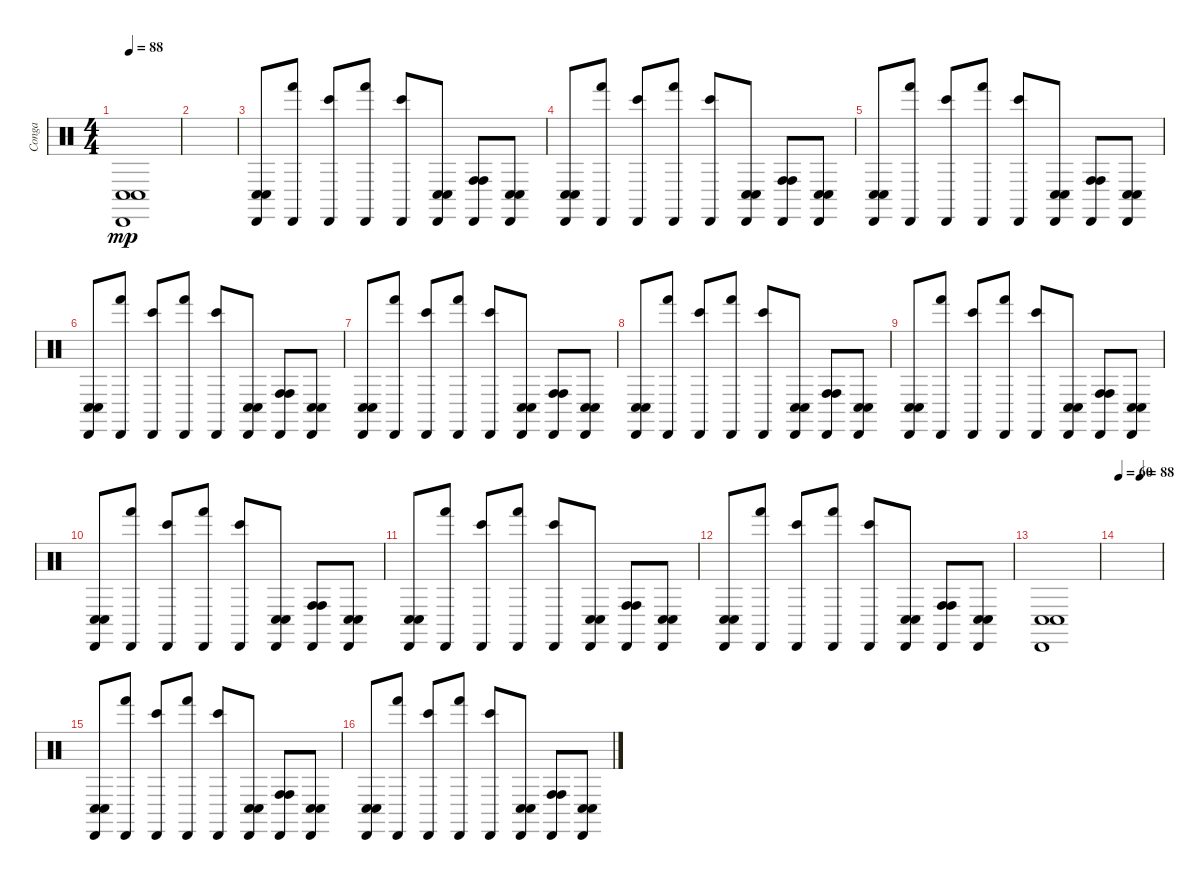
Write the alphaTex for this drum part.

\track ("Conga" "Conga") {instrument percussion}
\staff {score}
\articulation defaults
\ts (4 4)
\tempo 88
\clef neutral
\ks c
("Cabasa (hit)" "Conga low (hit)" "Conga low (hit)").1{dy mp} |
|
("Cabasa (hit)" "Conga low (hit)" "Conga low (hit)").8 ("Cabasa (hit)" "Hand (hit)").8 ("Cabasa (hit)" "Bongo High (hit)").8 ("Cabasa (hit)" "Hand (hit)").8 ("Cabasa (hit)" "Bongo High (hit)").8 ("Cabasa (hit)" "Conga low (hit)" "Conga low (hit)").8 ("Cabasa (hit)" "Conga high (hit)" "Conga high (hit)").8 ("Cabasa (hit)" "Conga low (hit)" "Conga low (hit)").8 |
("Cabasa (hit)" "Conga low (hit)" "Conga low (hit)").8 ("Cabasa (hit)" "Hand (hit)").8 ("Cabasa (hit)" "Bongo High (hit)").8 ("Cabasa (hit)" "Hand (hit)").8 ("Cabasa (hit)" "Bongo High (hit)").8 ("Cabasa (hit)" "Conga low (hit)" "Conga low (hit)").8 ("Cabasa (hit)" "Conga high (hit)" "Conga high (hit)").8 ("Cabasa (hit)" "Conga low (hit)" "Conga low (hit)").8 |
("Cabasa (hit)" "Conga low (hit)" "Conga low (hit)").8 ("Cabasa (hit)" "Hand (hit)").8 ("Cabasa (hit)" "Bongo High (hit)").8 ("Cabasa (hit)" "Hand (hit)").8 ("Cabasa (hit)" "Bongo High (hit)").8 ("Cabasa (hit)" "Conga low (hit)" "Conga low (hit)").8 ("Cabasa (hit)" "Conga high (hit)" "Conga high (hit)").8 ("Cabasa (hit)" "Conga low (hit)" "Conga low (hit)").8 |
("Cabasa (hit)" "Conga low (hit)" "Conga low (hit)").8 ("Cabasa (hit)" "Hand (hit)").8 ("Cabasa (hit)" "Bongo High (hit)").8 ("Cabasa (hit)" "Hand (hit)").8 ("Cabasa (hit)" "Bongo High (hit)").8 ("Cabasa (hit)" "Conga low (hit)" "Conga low (hit)").8 ("Cabasa (hit)" "Conga high (hit)" "Conga high (hit)").8 ("Cabasa (hit)" "Conga low (hit)" "Conga low (hit)").8 |
("Cabasa (hit)" "Conga low (hit)" "Conga low (hit)").8 ("Cabasa (hit)" "Hand (hit)").8 ("Cabasa (hit)" "Bongo High (hit)").8 ("Cabasa (hit)" "Hand (hit)").8 ("Cabasa (hit)" "Bongo High (hit)").8 ("Cabasa (hit)" "Conga low (hit)" "Conga low (hit)").8 ("Cabasa (hit)" "Conga high (hit)" "Conga high (hit)").8 ("Cabasa (hit)" "Conga low (hit)" "Conga low (hit)").8 |
("Cabasa (hit)" "Conga low (hit)" "Conga low (hit)").8 ("Cabasa (hit)" "Hand (hit)").8 ("Cabasa (hit)" "Bongo High (hit)").8 ("Cabasa (hit)" "Hand (hit)").8 ("Cabasa (hit)" "Bongo High (hit)").8 ("Cabasa (hit)" "Conga low (hit)" "Conga low (hit)").8 ("Cabasa (hit)" "Conga high (hit)" "Conga high (hit)").8 ("Cabasa (hit)" "Conga low (hit)" "Conga low (hit)").8 |
("Cabasa (hit)" "Conga low (hit)" "Conga low (hit)").8 ("Cabasa (hit)" "Hand (hit)").8 ("Cabasa (hit)" "Bongo High (hit)").8 ("Cabasa (hit)" "Hand (hit)").8 ("Cabasa (hit)" "Bongo High (hit)").8 ("Cabasa (hit)" "Conga low (hit)" "Conga low (hit)").8 ("Cabasa (hit)" "Conga high (hit)" "Conga high (hit)").8 ("Cabasa (hit)" "Conga low (hit)" "Conga low (hit)").8 |
("Cabasa (hit)" "Conga low (hit)" "Conga low (hit)").8 ("Cabasa (hit)" "Hand (hit)").8 ("Cabasa (hit)" "Bongo High (hit)").8 ("Cabasa (hit)" "Hand (hit)").8 ("Cabasa (hit)" "Bongo High (hit)").8 ("Cabasa (hit)" "Conga low (hit)" "Conga low (hit)").8 ("Cabasa (hit)" "Conga high (hit)" "Conga high (hit)").8 ("Cabasa (hit)" "Conga low (hit)" "Conga low (hit)").8 |
("Cabasa (hit)" "Conga low (hit)" "Conga low (hit)").8 ("Cabasa (hit)" "Hand (hit)").8 ("Cabasa (hit)" "Bongo High (hit)").8 ("Cabasa (hit)" "Hand (hit)").8 ("Cabasa (hit)" "Bongo High (hit)").8 ("Cabasa (hit)" "Conga low (hit)" "Conga low (hit)").8 ("Cabasa (hit)" "Conga high (hit)" "Conga high (hit)").8 ("Cabasa (hit)" "Conga low (hit)" "Conga low (hit)").8 |
("Cabasa (hit)" "Conga low (hit)" "Conga low (hit)").8 ("Cabasa (hit)" "Hand (hit)").8 ("Cabasa (hit)" "Bongo High (hit)").8 ("Cabasa (hit)" "Hand (hit)").8 ("Cabasa (hit)" "Bongo High (hit)").8 ("Cabasa (hit)" "Conga low (hit)" "Conga low (hit)").8 ("Cabasa (hit)" "Conga high (hit)" "Conga high (hit)").8 ("Cabasa (hit)" "Conga low (hit)" "Conga low (hit)").8 |
("Cabasa (hit)" "Conga low (hit)" "Conga low (hit)").1 |
\tempo 60
\tempo (88 0.5)
|
("Cabasa (hit)" "Conga low (hit)" "Conga low (hit)").8 ("Cabasa (hit)" "Hand (hit)").8 ("Cabasa (hit)" "Bongo High (hit)").8 ("Cabasa (hit)" "Hand (hit)").8 ("Cabasa (hit)" "Bongo High (hit)").8 ("Cabasa (hit)" "Conga low (hit)" "Conga low (hit)").8 ("Cabasa (hit)" "Conga high (hit)" "Conga high (hit)").8 ("Cabasa (hit)" "Conga low (hit)" "Conga low (hit)").8 |
("Cabasa (hit)" "Conga low (hit)" "Conga low (hit)").8 ("Cabasa (hit)" "Hand (hit)").8 ("Cabasa (hit)" "Bongo High (hit)").8 ("Cabasa (hit)" "Hand (hit)").8 ("Cabasa (hit)" "Bongo High (hit)").8 ("Cabasa (hit)" "Conga low (hit)" "Conga low (hit)").8 ("Cabasa (hit)" "Conga high (hit)" "Conga high (hit)").8 ("Cabasa (hit)" "Conga low (hit)" "Conga low (hit)").8
